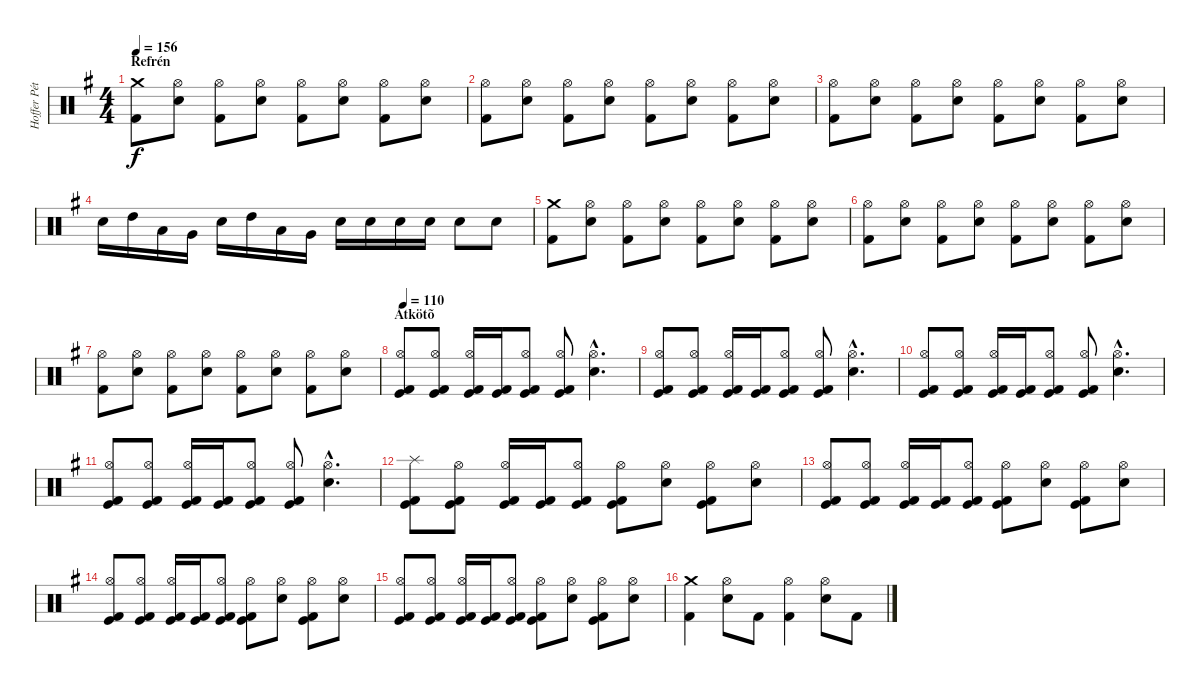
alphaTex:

\track ("Hoffer Péter" "Hoffer Pét") {instrument percussion}
\staff {score}
\articulation defaults
\ts (4 4)
\section ("" "Refrén")
\tempo 156
\clef neutral
\ks eminor
("Crash medium (hit)" "Kick (hit) 2").8{dy f} ("Hi-Hat (open)" "Snare (hit) 2").8 ("Hi-Hat (open)" "Kick (hit) 2").8 ("Hi-Hat (open)" "Snare (hit) 2").8 ("Hi-Hat (open)" "Kick (hit) 2").8 ("Hi-Hat (open)" "Snare (hit) 2").8 ("Hi-Hat (open)" "Kick (hit) 2").8 ("Hi-Hat (open)" "Snare (hit) 2").8 |
("Hi-Hat (open)" "Kick (hit) 2").8 ("Hi-Hat (open)" "Snare (hit) 2").8 ("Hi-Hat (open)" "Kick (hit) 2").8 ("Hi-Hat (open)" "Snare (hit) 2").8 ("Hi-Hat (open)" "Kick (hit) 2").8 ("Hi-Hat (open)" "Snare (hit) 2").8 ("Hi-Hat (open)" "Kick (hit) 2").8 ("Hi-Hat (open)" "Snare (hit) 2").8 |
("Hi-Hat (open)" "Kick (hit) 2").8 ("Hi-Hat (open)" "Snare (hit) 2").8 ("Hi-Hat (open)" "Kick (hit) 2").8 ("Hi-Hat (open)" "Snare (hit) 2").8 ("Hi-Hat (open)" "Kick (hit) 2").8 ("Hi-Hat (open)" "Snare (hit) 2").8 ("Hi-Hat (open)" "Kick (hit) 2").8 ("Hi-Hat (open)" "Snare (hit) 2").8 |
"Snare (hit) 2".16 "High Tom (hit)".16 "Low Tom (hit)".16 "Very Low Tom (hit)".16 "Snare (hit) 2".16 "High Tom (hit)".16 "Low Tom (hit)".16 "Very Low Tom (hit)".16 "Snare (hit) 2".16 "Snare (hit) 2".16 "Snare (hit) 2".16 "Snare (hit) 2".16 "Snare (hit) 2".8 "Snare (hit) 2".8 |
("Crash medium (hit)" "Kick (hit) 2").8 ("Hi-Hat (open)" "Snare (hit) 2").8 ("Hi-Hat (open)" "Kick (hit) 2").8 ("Hi-Hat (open)" "Snare (hit) 2").8 ("Hi-Hat (open)" "Kick (hit) 2").8 ("Hi-Hat (open)" "Snare (hit) 2").8 ("Hi-Hat (open)" "Kick (hit) 2").8 ("Hi-Hat (open)" "Snare (hit) 2").8 |
("Hi-Hat (open)" "Kick (hit) 2").8 ("Hi-Hat (open)" "Snare (hit) 2").8 ("Hi-Hat (open)" "Kick (hit) 2").8 ("Hi-Hat (open)" "Snare (hit) 2").8 ("Hi-Hat (open)" "Kick (hit) 2").8 ("Hi-Hat (open)" "Snare (hit) 2").8 ("Hi-Hat (open)" "Kick (hit) 2").8 ("Hi-Hat (open)" "Snare (hit) 2").8 |
("Hi-Hat (open)" "Kick (hit) 2").8 ("Hi-Hat (open)" "Snare (hit) 2").8 ("Hi-Hat (open)" "Kick (hit) 2").8 ("Hi-Hat (open)" "Snare (hit) 2").8 ("Hi-Hat (open)" "Kick (hit) 2").8 ("Hi-Hat (open)" "Snare (hit) 2").8 ("Hi-Hat (open)" "Kick (hit) 2").8 ("Hi-Hat (open)" "Snare (hit) 2").8 |
\section ("" "Átkötõ")
\tempo 110
("Hi-Hat (open)" "Kick (hit) 2" "Kick (hit)").8 ("Hi-Hat (open)" "Kick (hit) 2" "Kick (hit)").8 ("Hi-Hat (open)" "Kick (hit) 2" "Kick (hit)").16 ("Kick (hit) 2" "Kick (hit)").16 ("Hi-Hat (open)" "Kick (hit) 2" "Kick (hit)").8 ("Hi-Hat (open)" "Kick (hit) 2" "Kick (hit)").8 ("Hi-Hat (open)"{hac} "Snare (hit) 2"{hac}).4{d} |
("Hi-Hat (open)" "Kick (hit) 2" "Kick (hit)").8 ("Hi-Hat (open)" "Kick (hit) 2" "Kick (hit)").8 ("Hi-Hat (open)" "Kick (hit) 2" "Kick (hit)").16 ("Kick (hit) 2" "Kick (hit)").16 ("Hi-Hat (open)" "Kick (hit) 2" "Kick (hit)").8 ("Hi-Hat (open)" "Kick (hit) 2" "Kick (hit)").8 ("Hi-Hat (open)"{hac} "Snare (hit) 2"{hac}).4{d} |
("Hi-Hat (open)" "Kick (hit) 2" "Kick (hit)").8 ("Hi-Hat (open)" "Kick (hit) 2" "Kick (hit)").8 ("Hi-Hat (open)" "Kick (hit) 2" "Kick (hit)").16 ("Kick (hit) 2" "Kick (hit)").16 ("Hi-Hat (open)" "Kick (hit) 2" "Kick (hit)").8 ("Hi-Hat (open)" "Kick (hit) 2" "Kick (hit)").8 ("Hi-Hat (open)"{hac} "Snare (hit) 2"{hac}).4{d} |
("Hi-Hat (open)" "Kick (hit) 2" "Kick (hit)").8 ("Hi-Hat (open)" "Kick (hit) 2" "Kick (hit)").8 ("Hi-Hat (open)" "Kick (hit) 2" "Kick (hit)").16 ("Kick (hit) 2" "Kick (hit)").16 ("Hi-Hat (open)" "Kick (hit) 2" "Kick (hit)").8 ("Hi-Hat (open)" "Kick (hit) 2" "Kick (hit)").8 ("Hi-Hat (open)"{hac} "Snare (hit) 2"{hac}).4{d} |
("Splash (hit)" "Kick (hit) 2" "Kick (hit)").8 ("Hi-Hat (open)" "Kick (hit) 2" "Kick (hit)").8 ("Hi-Hat (open)" "Kick (hit) 2" "Kick (hit)").16 ("Kick (hit) 2" "Kick (hit)").16 ("Hi-Hat (open)" "Kick (hit) 2" "Kick (hit)").8 ("Hi-Hat (open)" "Kick (hit) 2" "Kick (hit)").8 ("Hi-Hat (open)" "Snare (hit) 2").8 ("Hi-Hat (open)" "Kick (hit) 2" "Kick (hit)").8 ("Hi-Hat (open)" "Snare (hit) 2").8 |
("Hi-Hat (open)" "Kick (hit) 2" "Kick (hit)").8 ("Hi-Hat (open)" "Kick (hit) 2" "Kick (hit)").8 ("Hi-Hat (open)" "Kick (hit) 2" "Kick (hit)").16 ("Kick (hit) 2" "Kick (hit)").16 ("Hi-Hat (open)" "Kick (hit) 2" "Kick (hit)").8 ("Hi-Hat (open)" "Kick (hit) 2" "Kick (hit)").8 ("Hi-Hat (open)" "Snare (hit) 2").8 ("Hi-Hat (open)" "Kick (hit) 2" "Kick (hit)").8 ("Hi-Hat (open)" "Snare (hit) 2").8 |
("Hi-Hat (open)" "Kick (hit) 2" "Kick (hit)").8 ("Hi-Hat (open)" "Kick (hit) 2" "Kick (hit)").8 ("Hi-Hat (open)" "Kick (hit) 2" "Kick (hit)").16 ("Kick (hit) 2" "Kick (hit)").16 ("Hi-Hat (open)" "Kick (hit) 2" "Kick (hit)").8 ("Hi-Hat (open)" "Kick (hit) 2" "Kick (hit)").8 ("Hi-Hat (open)" "Snare (hit) 2").8 ("Hi-Hat (open)" "Kick (hit) 2" "Kick (hit)").8 ("Hi-Hat (open)" "Snare (hit) 2").8 |
("Hi-Hat (open)" "Kick (hit) 2" "Kick (hit)").8 ("Hi-Hat (open)" "Kick (hit) 2" "Kick (hit)").8 ("Hi-Hat (open)" "Kick (hit) 2" "Kick (hit)").16 ("Kick (hit) 2" "Kick (hit)").16 ("Hi-Hat (open)" "Kick (hit) 2" "Kick (hit)").8 ("Hi-Hat (open)" "Kick (hit) 2" "Kick (hit)").8 ("Hi-Hat (open)" "Snare (hit) 2").8 ("Hi-Hat (open)" "Kick (hit) 2" "Kick (hit)").8 ("Hi-Hat (open)" "Snare (hit) 2").8 |
("Crash medium (hit)" "Kick (hit) 2").4 ("Hi-Hat (open)" "Snare (hit) 2").8 "Kick (hit) 2".8 ("Hi-Hat (open)" "Kick (hit) 2").4 ("Hi-Hat (open)" "Snare (hit) 2").8 "Kick (hit) 2".8
